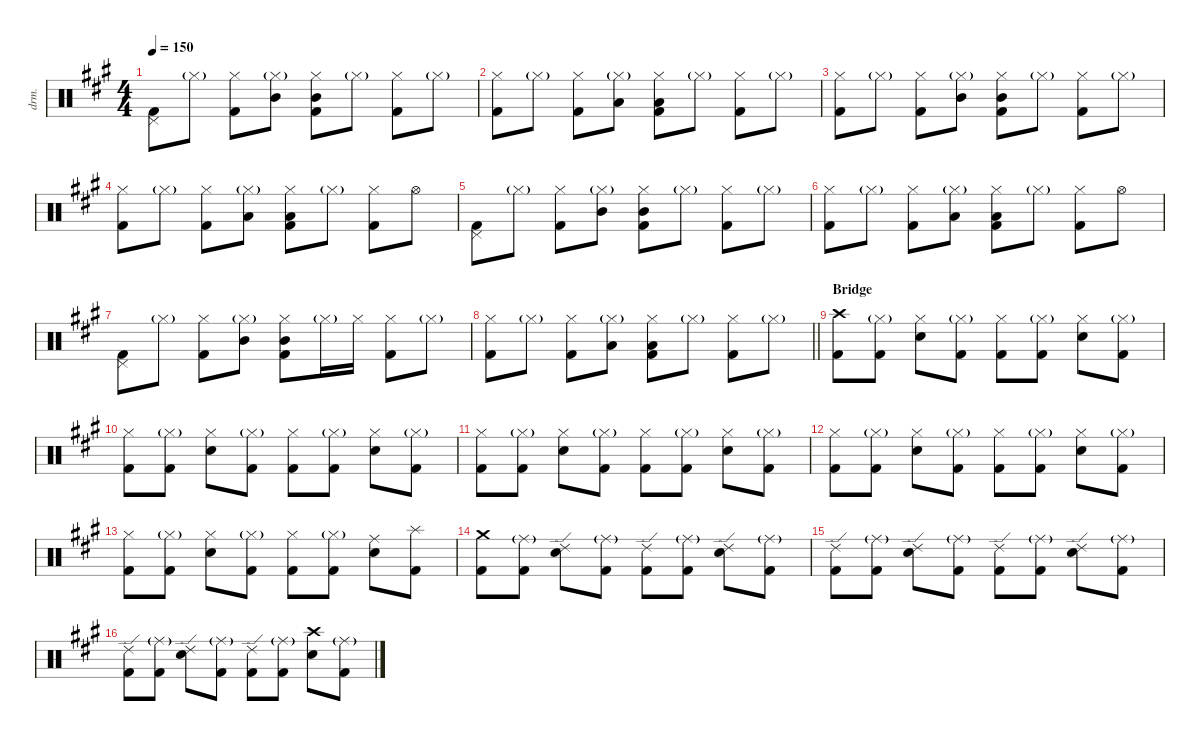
\defaultSystemsLayout 4
\hideDynamics
\bracketExtendMode nobrackets
\otherSystemsTrackNameOrientation horizontal
\track ("Drums" "drm.") {instrument percussion}
\staff {score}
\articulation defaults
\ts (4 4)
\tempo 150
\clef neutral
\ks a
("Kick (hit) 2"{acc forcenatural} "Pedal Hi-Hat (hit)"{acc forcenatural}).8{dy fff} "Hi-Hat (closed)"{g acc forcenatural}.8{dy p} ("Kick (hit) 2"{acc forcenatural} "Hi-Hat (closed)"{acc forcenatural}).8{dy fff} ("Hi-Hat (closed)"{g acc forcenatural} "Mid Tom (hit)"{acc forcenatural}).8{dy mp} ("Kick (hit) 2"{acc forcenatural} "Hi-Hat (closed)"{acc forcenatural} "Mid Tom (hit)"{acc forcenatural}).8{dy fff} "Hi-Hat (closed)"{g acc forcenatural}.8{dy p} ("Kick (hit) 2"{acc forcenatural} "Hi-Hat (closed)"{acc forcenatural}).8{dy fff} "Hi-Hat (closed)"{g acc forcenatural}.8{dy p} |
("Kick (hit) 2"{acc forcenatural} "Hi-Hat (closed)"{acc forcenatural}).8{dy fff} "Hi-Hat (closed)"{g acc forcenatural}.8{dy p} ("Kick (hit) 2"{acc forcenatural} "Hi-Hat (closed)"{acc forcenatural}).8{dy fff} ("Hi-Hat (closed)"{g acc forcenatural} "Low Tom (hit)"{acc forcenatural}).8{dy mp} ("Kick (hit) 2"{acc forcenatural} "Hi-Hat (closed)"{acc forcenatural} "Low Tom (hit)"{acc forcenatural}).8{dy fff} "Hi-Hat (closed)"{g acc forcenatural}.8{dy p} ("Kick (hit) 2"{acc forcenatural} "Hi-Hat (closed)"{acc forcenatural}).8{dy fff} "Hi-Hat (closed)"{g acc forcenatural}.8{dy p} |
("Kick (hit) 2"{acc forcenatural} "Hi-Hat (closed)"{acc forcenatural}).8{dy fff} "Hi-Hat (closed)"{g acc forcenatural}.8{dy p} ("Kick (hit) 2"{acc forcenatural} "Hi-Hat (closed)"{acc forcenatural}).8{dy fff} ("Hi-Hat (closed)"{g acc forcenatural} "Mid Tom (hit)"{acc forcenatural}).8{dy mp} ("Kick (hit) 2"{acc forcenatural} "Hi-Hat (closed)"{acc forcenatural} "Mid Tom (hit)"{acc forcenatural}).8{dy fff} "Hi-Hat (closed)"{g acc forcenatural}.8{dy p} ("Kick (hit) 2"{acc forcenatural} "Hi-Hat (closed)"{acc forcenatural}).8{dy fff} "Hi-Hat (closed)"{g acc forcenatural}.8{dy p} |
("Kick (hit) 2"{acc forcenatural} "Hi-Hat (closed)"{acc forcenatural}).8{dy fff} "Hi-Hat (closed)"{g acc forcenatural}.8{dy p} ("Kick (hit) 2"{acc forcenatural} "Hi-Hat (closed)"{acc forcenatural}).8{dy fff} ("Hi-Hat (closed)"{g acc forcenatural} "Low Tom (hit)"{acc forcenatural}).8{dy mp} ("Kick (hit) 2"{acc forcenatural} "Hi-Hat (closed)"{acc forcenatural} "Low Tom (hit)"{acc forcenatural}).8{dy fff} "Hi-Hat (closed)"{g acc forcenatural}.8{dy p} ("Kick (hit) 2"{acc forcenatural} "Hi-Hat (closed)"{acc forcenatural}).8{dy fff} "Hi-Hat (open)"{acc forcenatural}.8{dy mp} |
("Kick (hit) 2"{acc forcenatural} "Pedal Hi-Hat (hit)"{acc forcenatural}).8{dy fff} "Hi-Hat (closed)"{g acc forcenatural}.8{dy p} ("Kick (hit) 2"{acc forcenatural} "Hi-Hat (closed)"{acc forcenatural}).8{dy fff} ("Hi-Hat (closed)"{g acc forcenatural} "Mid Tom (hit)"{acc forcenatural}).8{dy mp} ("Kick (hit) 2"{acc forcenatural} "Hi-Hat (closed)"{acc forcenatural} "Mid Tom (hit)"{acc forcenatural}).8{dy fff} "Hi-Hat (closed)"{g acc forcenatural}.8{dy p} ("Kick (hit) 2"{acc forcenatural} "Hi-Hat (closed)"{acc forcenatural}).8{dy fff} "Hi-Hat (closed)"{g acc forcenatural}.8{dy p} |
("Kick (hit) 2"{acc forcenatural} "Hi-Hat (closed)"{acc forcenatural}).8{dy fff} "Hi-Hat (closed)"{g acc forcenatural}.8{dy p} ("Kick (hit) 2"{acc forcenatural} "Hi-Hat (closed)"{acc forcenatural}).8{dy fff} ("Hi-Hat (closed)"{g acc forcenatural} "Low Tom (hit)"{acc forcenatural}).8{dy mp} ("Kick (hit) 2"{acc forcenatural} "Hi-Hat (closed)"{acc forcenatural} "Low Tom (hit)"{acc forcenatural}).8{dy fff} "Hi-Hat (closed)"{g acc forcenatural}.8{dy p} ("Kick (hit) 2"{acc forcenatural} "Hi-Hat (closed)"{acc forcenatural}).8{dy fff} "Hi-Hat (open)"{acc forcenatural}.8{dy mp} |
("Kick (hit) 2"{acc forcenatural} "Pedal Hi-Hat (hit)"{acc forcenatural}).8{dy fff} "Hi-Hat (closed)"{g acc forcenatural}.8{dy p} ("Kick (hit) 2"{acc forcenatural} "Hi-Hat (closed)"{acc forcenatural}).8{dy fff} ("Hi-Hat (closed)"{g acc forcenatural} "Mid Tom (hit)"{acc forcenatural}).8{dy mp} ("Kick (hit) 2"{acc forcenatural} "Hi-Hat (closed)"{acc forcenatural} "Mid Tom (hit)"{acc forcenatural}).8{dy fff} "Hi-Hat (closed)"{g acc forcenatural}.16{dy p} "Hi-Hat (closed)"{acc forcenatural}.16{dy mf} ("Kick (hit) 2"{acc forcenatural} "Hi-Hat (closed)"{acc forcenatural}).8{dy fff} "Hi-Hat (closed)"{g acc forcenatural}.8{dy p} |
\barLineRight lightlight
("Kick (hit) 2"{acc forcenatural} "Hi-Hat (closed)"{acc forcenatural}).8{dy fff} "Hi-Hat (closed)"{g acc forcenatural}.8{dy p} ("Kick (hit) 2"{acc forcenatural} "Hi-Hat (closed)"{acc forcenatural}).8{dy fff} ("Hi-Hat (closed)"{g acc forcenatural} "Low Tom (hit)"{acc forcenatural}).8{dy mp} ("Kick (hit) 2"{acc forcenatural} "Hi-Hat (closed)"{acc forcenatural} "Low Tom (hit)"{acc forcenatural}).8{dy fff} "Hi-Hat (closed)"{g acc forcenatural}.8{dy p} ("Kick (hit) 2"{acc forcenatural} "Hi-Hat (closed)"{acc forcenatural}).8{dy fff} "Hi-Hat (closed)"{g acc forcenatural}.8{dy p} |
\section ("" "Bridge")
("Kick (hit) 2"{acc forcenatural} "Crash high (hit)"{acc forcenatural}).8{dy fff} ("Kick (hit) 2"{acc forcenatural} "Hi-Hat (closed)"{g acc forcenatural}).8 ("Snare (hit) 2"{acc forcenatural} "Hi-Hat (closed)"{acc forcenatural}).8{dy ff} ("Kick (hit) 2"{acc forcenatural} "Hi-Hat (closed)"{g acc forcenatural}).8{dy mp} ("Kick (hit) 2"{acc forcenatural} "Hi-Hat (closed)"{acc forcenatural}).8{dy fff} ("Kick (hit) 2"{acc forcenatural} "Hi-Hat (closed)"{g acc forcenatural}).8 ("Snare (hit) 2"{acc forcenatural} "Hi-Hat (closed)"{acc forcenatural}).8{dy ff} ("Kick (hit) 2"{acc forcenatural} "Hi-Hat (closed)"{g acc forcenatural}).8{dy mp} |
("Kick (hit) 2"{acc forcenatural} "Hi-Hat (closed)"{acc forcenatural}).8{dy fff} ("Kick (hit) 2"{acc forcenatural} "Hi-Hat (closed)"{g acc forcenatural}).8 ("Snare (hit) 2"{acc forcenatural} "Hi-Hat (closed)"{acc forcenatural}).8{dy ff} ("Kick (hit) 2"{acc forcenatural} "Hi-Hat (closed)"{g acc forcenatural}).8{dy mp} ("Kick (hit) 2"{acc forcenatural} "Hi-Hat (closed)"{acc forcenatural}).8{dy fff} ("Kick (hit) 2"{acc forcenatural} "Hi-Hat (closed)"{g acc forcenatural}).8 ("Snare (hit) 2"{acc forcenatural} "Hi-Hat (closed)"{acc forcenatural}).8{dy ff} ("Kick (hit) 2"{acc forcenatural} "Hi-Hat (closed)"{g acc forcenatural}).8{dy mp} |
("Kick (hit) 2"{acc forcenatural} "Hi-Hat (closed)"{acc forcenatural}).8{dy fff} ("Kick (hit) 2"{acc forcenatural} "Hi-Hat (closed)"{g acc forcenatural}).8 ("Snare (hit) 2"{acc forcenatural} "Hi-Hat (closed)"{acc forcenatural}).8{dy ff} ("Kick (hit) 2"{acc forcenatural} "Hi-Hat (closed)"{g acc forcenatural}).8{dy mp} ("Kick (hit) 2"{acc forcenatural} "Hi-Hat (closed)"{acc forcenatural}).8{dy fff} ("Kick (hit) 2"{acc forcenatural} "Hi-Hat (closed)"{g acc forcenatural}).8 ("Snare (hit) 2"{acc forcenatural} "Hi-Hat (closed)"{acc forcenatural}).8{dy ff} ("Kick (hit) 2"{acc forcenatural} "Hi-Hat (closed)"{g acc forcenatural}).8{dy mp} |
("Kick (hit) 2"{acc forcenatural} "Hi-Hat (closed)"{acc forcenatural}).8{dy fff} ("Kick (hit) 2"{acc forcenatural} "Hi-Hat (closed)"{g acc forcenatural}).8 ("Snare (hit) 2"{acc forcenatural} "Hi-Hat (closed)"{acc forcenatural}).8{dy ff} ("Kick (hit) 2"{acc forcenatural} "Hi-Hat (closed)"{g acc forcenatural}).8{dy mp} ("Kick (hit) 2"{acc forcenatural} "Hi-Hat (closed)"{acc forcenatural}).8{dy fff} ("Kick (hit) 2"{acc forcenatural} "Hi-Hat (closed)"{g acc forcenatural}).8 ("Snare (hit) 2"{acc forcenatural} "Hi-Hat (closed)"{acc forcenatural}).8{dy ff} ("Kick (hit) 2"{acc forcenatural} "Hi-Hat (closed)"{g acc forcenatural}).8{dy mp} |
("Kick (hit) 2"{acc forcenatural} "Hi-Hat (closed)"{acc forcenatural}).8{dy fff} ("Kick (hit) 2"{acc forcenatural} "Hi-Hat (closed)"{g acc forcenatural}).8 ("Snare (hit) 2"{acc forcenatural} "Hi-Hat (closed)"{acc forcenatural}).8{dy ff} ("Kick (hit) 2"{acc forcenatural} "Hi-Hat (closed)"{g acc forcenatural}).8{dy mp} ("Kick (hit) 2"{acc forcenatural} "Hi-Hat (closed)"{acc forcenatural}).8{dy fff} ("Kick (hit) 2"{acc forcenatural} "Hi-Hat (closed)"{g acc forcenatural}).8 ("Snare (hit) 2"{acc forcenatural} "Ride (middle)"{acc forcenatural}).8{dy ff} ("Kick (hit) 2"{acc forcenatural} "Splash (hit)"{acc forcenatural}).8{dy mp} |
("Kick (hit) 2"{acc forcenatural} "Crash medium (hit)"{acc forcenatural}).8{dy fff} ("Kick (hit) 2"{acc forcenatural} "Ride (middle)"{g acc forcenatural}).8 ("Snare (hit) 2"{acc forcenatural} "Ride (edge) 2"{acc forcenatural}).8{dy ff} ("Kick (hit) 2"{acc forcenatural} "Ride (middle)"{g acc forcenatural}).8{dy mp} ("Kick (hit) 2"{acc forcenatural} "Ride (edge) 2"{acc forcenatural}).8{dy fff} ("Kick (hit) 2"{acc forcenatural} "Ride (middle)"{g acc forcenatural}).8 ("Snare (hit) 2"{acc forcenatural} "Ride (edge) 2"{acc forcenatural}).8{dy ff} ("Kick (hit) 2"{acc forcenatural} "Ride (middle)"{g acc forcenatural}).8{dy mp} |
("Kick (hit) 2"{acc forcenatural} "Ride (edge) 2"{acc forcenatural}).8{dy fff} ("Kick (hit) 2"{acc forcenatural} "Ride (middle)"{g acc forcenatural}).8 ("Snare (hit) 2"{acc forcenatural} "Ride (edge) 2"{acc forcenatural}).8{dy ff} ("Kick (hit) 2"{acc forcenatural} "Ride (middle)"{g acc forcenatural}).8{dy mp} ("Kick (hit) 2"{acc forcenatural} "Ride (edge) 2"{acc forcenatural}).8{dy fff} ("Kick (hit) 2"{acc forcenatural} "Ride (middle)"{g acc forcenatural}).8 ("Snare (hit) 2"{acc forcenatural} "Ride (edge) 2"{acc forcenatural}).8{dy ff} ("Kick (hit) 2"{acc forcenatural} "Ride (middle)"{g acc forcenatural}).8{dy mp} |
("Kick (hit) 2"{acc forcenatural} "Ride (edge) 2"{acc forcenatural}).8{dy fff} ("Kick (hit) 2"{acc forcenatural} "Ride (middle)"{g acc forcenatural}).8 ("Snare (hit) 2"{acc forcenatural} "Ride (edge) 2"{acc forcenatural}).8{dy ff} ("Kick (hit) 2"{acc forcenatural} "Ride (middle)"{g acc forcenatural}).8{dy mp} ("Kick (hit) 2"{acc forcenatural} "Ride (edge) 2"{acc forcenatural}).8{dy fff} ("Kick (hit) 2"{acc forcenatural} "Ride (middle)"{g acc forcenatural}).8 ("Snare (hit) 2"{acc forcenatural} "Crash high (hit)"{acc forcenatural}).8{dy ff} ("Kick (hit) 2"{acc forcenatural} "Ride (middle)"{g acc forcenatural}).8{dy mp}
